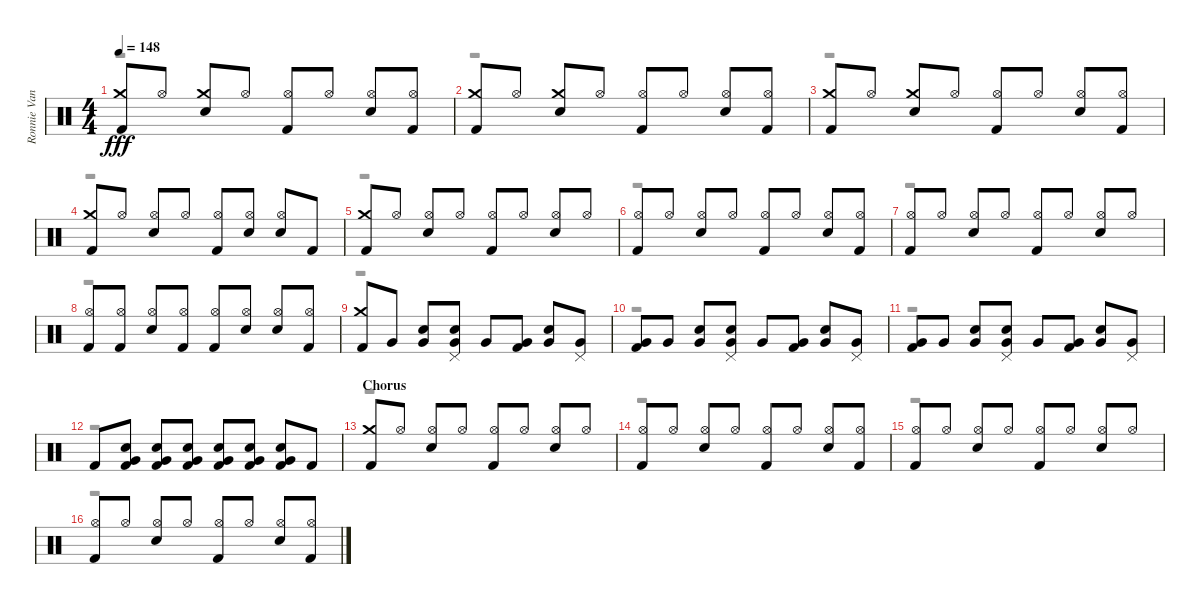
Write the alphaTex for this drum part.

\track ("Ronnie Vannucci Jr. - Drums" "Ronnie Van") {instrument percussion}
\staff {score}
\articulation defaults
\voice
\ts (4 4)
\tempo 148
\clef neutral
\ks c
("Crash medium (hit)" "Kick (hit) 2").8{dy fff} "Hi-Hat (open)".8 ("Crash medium (hit)" "Electric Snare (hit)").8 "Hi-Hat (open)".8 ("Hi-Hat (open)" "Kick (hit) 2").8 "Hi-Hat (open)".8 ("Hi-Hat (open)" "Electric Snare (hit)").8 ("Hi-Hat (open)" "Kick (hit) 2").8 |
("Crash medium (hit)" "Kick (hit) 2").8 "Hi-Hat (open)".8 ("Crash medium (hit)" "Electric Snare (hit)").8 "Hi-Hat (open)".8 ("Hi-Hat (open)" "Kick (hit) 2").8 "Hi-Hat (open)".8 ("Hi-Hat (open)" "Electric Snare (hit)").8 ("Hi-Hat (open)" "Kick (hit) 2").8 |
("Crash medium (hit)" "Kick (hit) 2").8 "Hi-Hat (open)".8 ("Crash medium (hit)" "Electric Snare (hit)").8 "Hi-Hat (open)".8 ("Hi-Hat (open)" "Kick (hit) 2").8 "Hi-Hat (open)".8 ("Hi-Hat (open)" "Electric Snare (hit)").8 ("Hi-Hat (open)" "Kick (hit) 2").8 |
("Crash medium (hit)" "Kick (hit) 2").8 "Hi-Hat (open)".8 ("Hi-Hat (open)" "Electric Snare (hit)").8 "Hi-Hat (open)".8 ("Hi-Hat (open)" "Kick (hit) 2").8 ("Hi-Hat (open)" "Electric Snare (hit)").8 ("Hi-Hat (open)" "Electric Snare (hit)").8 "Kick (hit) 2".8 |
("Crash medium (hit)" "Kick (hit) 2").8 "Hi-Hat (open)".8 ("Hi-Hat (open)" "Electric Snare (hit)").8 "Hi-Hat (open)".8 ("Hi-Hat (open)" "Kick (hit) 2").8 "Hi-Hat (open)".8 ("Hi-Hat (open)" "Electric Snare (hit)").8 "Hi-Hat (open)".8 |
("Hi-Hat (open)" "Kick (hit) 2").8 "Hi-Hat (open)".8 ("Hi-Hat (open)" "Electric Snare (hit)").8 "Hi-Hat (open)".8 ("Hi-Hat (open)" "Kick (hit) 2").8 "Hi-Hat (open)".8 ("Hi-Hat (open)" "Electric Snare (hit)").8 ("Hi-Hat (open)" "Kick (hit) 2").8 |
("Hi-Hat (open)" "Kick (hit) 2").8 "Hi-Hat (open)".8 ("Hi-Hat (open)" "Electric Snare (hit)").8 "Hi-Hat (open)".8 ("Hi-Hat (open)" "Kick (hit) 2").8 "Hi-Hat (open)".8 ("Hi-Hat (open)" "Electric Snare (hit)").8 "Hi-Hat (open)".8 |
("Hi-Hat (open)" "Kick (hit) 2").8 ("Hi-Hat (open)" "Kick (hit) 2").8 ("Hi-Hat (open)" "Electric Snare (hit)").8 ("Hi-Hat (open)" "Kick (hit) 2").8 ("Hi-Hat (open)" "Kick (hit) 2").8 ("Hi-Hat (open)" "Electric Snare (hit)").8 ("Hi-Hat (open)" "Electric Snare (hit)").8 ("Hi-Hat (open)" "Kick (hit) 2").8 |
("Crash medium (hit)" "Kick (hit) 2").8 "Very Low Tom (hit)".8 ("Very Low Tom (hit)" "Electric Snare (hit)").8 ("Very Low Tom (hit)" "Pedal Hi-Hat (hit)" "Electric Snare (hit)").8 "Very Low Tom (hit)".8 ("Very Low Tom (hit)" "Kick (hit) 2").8 ("Very Low Tom (hit)" "Electric Snare (hit)").8 ("Very Low Tom (hit)" "Pedal Hi-Hat (hit)").8 |
("Very Low Tom (hit)" "Kick (hit) 2").8 "Very Low Tom (hit)".8 ("Very Low Tom (hit)" "Electric Snare (hit)").8 ("Very Low Tom (hit)" "Pedal Hi-Hat (hit)" "Electric Snare (hit)").8 "Very Low Tom (hit)".8 ("Very Low Tom (hit)" "Kick (hit) 2").8 ("Very Low Tom (hit)" "Electric Snare (hit)").8 ("Very Low Tom (hit)" "Pedal Hi-Hat (hit)").8 |
("Very Low Tom (hit)" "Kick (hit) 2").8 "Very Low Tom (hit)".8 ("Very Low Tom (hit)" "Electric Snare (hit)").8 ("Very Low Tom (hit)" "Pedal Hi-Hat (hit)" "Electric Snare (hit)").8 "Very Low Tom (hit)".8 ("Very Low Tom (hit)" "Kick (hit) 2").8 ("Very Low Tom (hit)" "Electric Snare (hit)").8 ("Very Low Tom (hit)" "Pedal Hi-Hat (hit)").8 |
"Kick (hit) 2".8 ("Very Low Tom (hit)" "Electric Snare (hit)" "Kick (hit) 2").8 ("Very Low Tom (hit)" "Electric Snare (hit)" "Kick (hit) 2").8 ("Very Low Tom (hit)" "Electric Snare (hit)" "Kick (hit) 2").8 ("Very Low Tom (hit)" "Electric Snare (hit)" "Kick (hit) 2").8 ("Very Low Tom (hit)" "Electric Snare (hit)" "Kick (hit) 2").8 ("Very Low Tom (hit)" "Electric Snare (hit)" "Kick (hit) 2").8 "Kick (hit) 2".8 |
\section ("" "Chorus")
("Crash medium (hit)" "Kick (hit) 2").8 "Hi-Hat (open)".8 ("Hi-Hat (open)" "Electric Snare (hit)").8 "Hi-Hat (open)".8 ("Hi-Hat (open)" "Kick (hit) 2").8 "Hi-Hat (open)".8 ("Hi-Hat (open)" "Electric Snare (hit)").8 "Hi-Hat (open)".8 |
("Hi-Hat (open)" "Kick (hit) 2").8 "Hi-Hat (open)".8 ("Hi-Hat (open)" "Electric Snare (hit)").8 "Hi-Hat (open)".8 ("Hi-Hat (open)" "Kick (hit) 2").8 "Hi-Hat (open)".8 ("Hi-Hat (open)" "Electric Snare (hit)").8 ("Hi-Hat (open)" "Kick (hit) 2").8 |
("Hi-Hat (open)" "Kick (hit) 2").8 "Hi-Hat (open)".8 ("Hi-Hat (open)" "Electric Snare (hit)").8 "Hi-Hat (open)".8 ("Hi-Hat (open)" "Kick (hit) 2").8 "Hi-Hat (open)".8 ("Hi-Hat (open)" "Electric Snare (hit)").8 "Hi-Hat (open)".8 |
("Hi-Hat (open)" "Kick (hit) 2").8 "Hi-Hat (open)".8 ("Hi-Hat (open)" "Electric Snare (hit)").8 "Hi-Hat (open)".8 ("Hi-Hat (open)" "Kick (hit) 2").8 "Hi-Hat (open)".8 ("Hi-Hat (open)" "Electric Snare (hit)").8 ("Hi-Hat (open)" "Kick (hit) 2").8
\voice
\clef neutral
\ottava regular
\simile none
\ks c
r.1{dy f} |
r.1 |
r.1 |
r.1 |
r.1 |
r.1 |
r.1 |
r.1 |
r.1 |
r.1 |
r.1 |
r.1 |
r.1 |
r.1 |
r.1 |
r.1
